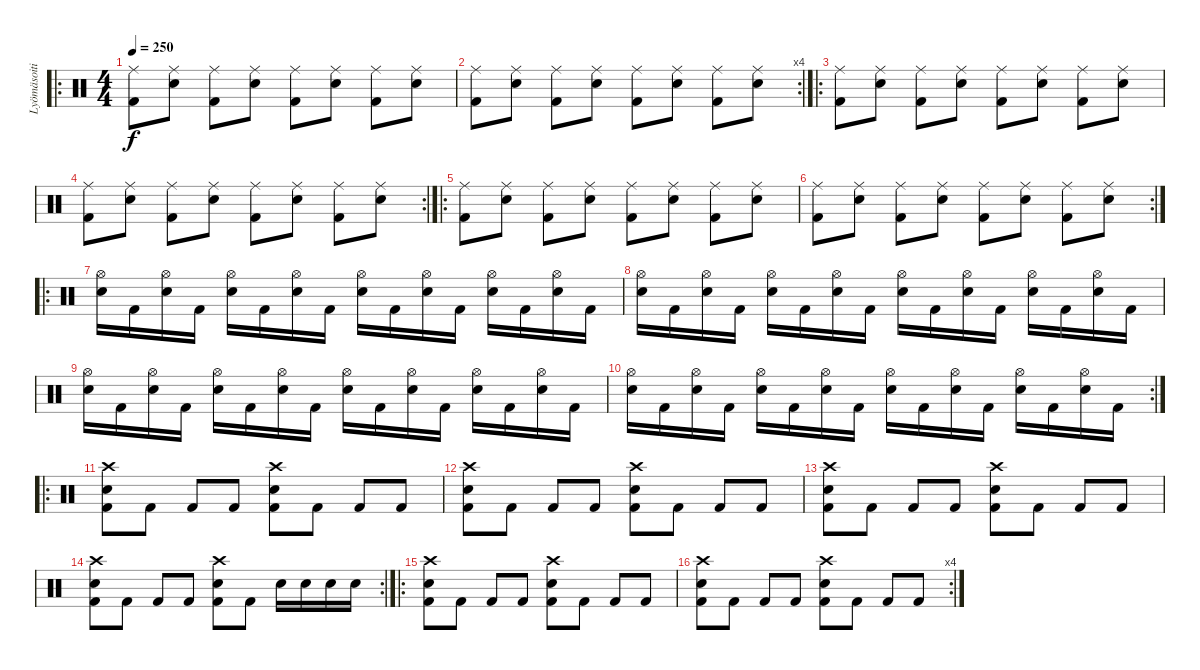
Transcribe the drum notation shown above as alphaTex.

\track ("Lyömäsoitin" "Lyömäsoiti") {instrument percussion}
\staff {score}
\articulation defaults
\ro
\ts (4 4)
\tempo 250
\clef neutral
\ks c
("Ride (middle)" "Kick (hit) 2").8{dy f} ("Ride (middle)" "Electric Snare (hit)").8 ("Ride (middle)" "Kick (hit) 2").8 ("Ride (middle)" "Electric Snare (hit)").8 ("Ride (middle)" "Kick (hit) 2").8 ("Ride (middle)" "Electric Snare (hit)").8 ("Ride (middle)" "Kick (hit) 2").8 ("Ride (middle)" "Electric Snare (hit)").8 |
\rc 4
("Ride (middle)" "Kick (hit) 2").8 ("Ride (middle)" "Electric Snare (hit)").8 ("Ride (middle)" "Kick (hit) 2").8 ("Ride (middle)" "Electric Snare (hit)").8 ("Ride (middle)" "Kick (hit) 2").8 ("Ride (middle)" "Electric Snare (hit)").8 ("Ride (middle)" "Kick (hit) 2").8 ("Ride (middle)" "Electric Snare (hit)").8 |
\ro
("Ride (middle)" "Kick (hit) 2").8 ("Ride (middle)" "Electric Snare (hit)").8 ("Ride (middle)" "Kick (hit) 2").8 ("Ride (middle)" "Electric Snare (hit)").8 ("Ride (middle)" "Kick (hit) 2").8 ("Ride (middle)" "Electric Snare (hit)").8 ("Ride (middle)" "Kick (hit) 2").8 ("Ride (middle)" "Electric Snare (hit)").8 |
\rc 2
("Ride (middle)" "Kick (hit) 2").8 ("Ride (middle)" "Electric Snare (hit)").8 ("Ride (middle)" "Kick (hit) 2").8 ("Ride (middle)" "Electric Snare (hit)").8 ("Ride (middle)" "Kick (hit) 2").8 ("Ride (middle)" "Electric Snare (hit)").8 ("Ride (middle)" "Kick (hit) 2").8 ("Ride (middle)" "Electric Snare (hit)").8 |
\ro
("Ride (middle)" "Kick (hit) 2").8 ("Ride (middle)" "Electric Snare (hit)").8 ("Ride (middle)" "Kick (hit) 2").8 ("Ride (middle)" "Electric Snare (hit)").8 ("Ride (middle)" "Kick (hit) 2").8 ("Ride (middle)" "Electric Snare (hit)").8 ("Ride (middle)" "Kick (hit) 2").8 ("Ride (middle)" "Electric Snare (hit)").8 |
\rc 2
("Ride (middle)" "Kick (hit) 2").8 ("Ride (middle)" "Electric Snare (hit)").8 ("Ride (middle)" "Kick (hit) 2").8 ("Ride (middle)" "Electric Snare (hit)").8 ("Ride (middle)" "Kick (hit) 2").8 ("Ride (middle)" "Electric Snare (hit)").8 ("Ride (middle)" "Kick (hit) 2").8 ("Ride (middle)" "Electric Snare (hit)").8 |
\ro
("Hi-Hat (open)" "Electric Snare (hit)").16 "Kick (hit) 2".16 ("Hi-Hat (open)" "Electric Snare (hit)").16 "Kick (hit) 2".16 ("Hi-Hat (open)" "Electric Snare (hit)").16 "Kick (hit) 2".16 ("Hi-Hat (open)" "Electric Snare (hit)").16 "Kick (hit) 2".16 ("Hi-Hat (open)" "Electric Snare (hit)").16 "Kick (hit) 2".16 ("Hi-Hat (open)" "Electric Snare (hit)").16 "Kick (hit) 2".16 ("Hi-Hat (open)" "Electric Snare (hit)").16 "Kick (hit) 2".16 ("Hi-Hat (open)" "Electric Snare (hit)").16 "Kick (hit) 2".16 |
("Hi-Hat (open)" "Electric Snare (hit)").16 "Kick (hit) 2".16 ("Hi-Hat (open)" "Electric Snare (hit)").16 "Kick (hit) 2".16 ("Hi-Hat (open)" "Electric Snare (hit)").16 "Kick (hit) 2".16 ("Hi-Hat (open)" "Electric Snare (hit)").16 "Kick (hit) 2".16 ("Hi-Hat (open)" "Electric Snare (hit)").16 "Kick (hit) 2".16 ("Hi-Hat (open)" "Electric Snare (hit)").16 "Kick (hit) 2".16 ("Hi-Hat (open)" "Electric Snare (hit)").16 "Kick (hit) 2".16 ("Hi-Hat (open)" "Electric Snare (hit)").16 "Kick (hit) 2".16 |
("Hi-Hat (open)" "Electric Snare (hit)").16 "Kick (hit) 2".16 ("Hi-Hat (open)" "Electric Snare (hit)").16 "Kick (hit) 2".16 ("Hi-Hat (open)" "Electric Snare (hit)").16 "Kick (hit) 2".16 ("Hi-Hat (open)" "Electric Snare (hit)").16 "Kick (hit) 2".16 ("Hi-Hat (open)" "Electric Snare (hit)").16 "Kick (hit) 2".16 ("Hi-Hat (open)" "Electric Snare (hit)").16 "Kick (hit) 2".16 ("Hi-Hat (open)" "Electric Snare (hit)").16 "Kick (hit) 2".16 ("Hi-Hat (open)" "Electric Snare (hit)").16 "Kick (hit) 2".16 |
\rc 2
("Hi-Hat (open)" "Electric Snare (hit)").16 "Kick (hit) 2".16 ("Hi-Hat (open)" "Electric Snare (hit)").16 "Kick (hit) 2".16 ("Hi-Hat (open)" "Electric Snare (hit)").16 "Kick (hit) 2".16 ("Hi-Hat (open)" "Electric Snare (hit)").16 "Kick (hit) 2".16 ("Hi-Hat (open)" "Electric Snare (hit)").16 "Kick (hit) 2".16 ("Hi-Hat (open)" "Electric Snare (hit)").16 "Kick (hit) 2".16 ("Hi-Hat (open)" "Electric Snare (hit)").16 "Kick (hit) 2".16 ("Hi-Hat (open)" "Electric Snare (hit)").16 "Kick (hit) 2".16 |
\ro
("Crash high (hit)" "Electric Snare (hit)" "Kick (hit) 2").8 "Kick (hit) 2".8 "Kick (hit) 2".8 "Kick (hit) 2".8 ("Crash high (hit)" "Electric Snare (hit)" "Kick (hit) 2").8 "Kick (hit) 2".8 "Kick (hit) 2".8 "Kick (hit) 2".8 |
("Crash high (hit)" "Electric Snare (hit)" "Kick (hit) 2").8 "Kick (hit) 2".8 "Kick (hit) 2".8 "Kick (hit) 2".8 ("Crash high (hit)" "Electric Snare (hit)" "Kick (hit) 2").8 "Kick (hit) 2".8 "Kick (hit) 2".8 "Kick (hit) 2".8 |
("Crash high (hit)" "Electric Snare (hit)" "Kick (hit) 2").8 "Kick (hit) 2".8 "Kick (hit) 2".8 "Kick (hit) 2".8 ("Crash high (hit)" "Electric Snare (hit)" "Kick (hit) 2").8 "Kick (hit) 2".8 "Kick (hit) 2".8 "Kick (hit) 2".8 |
\rc 2
("Crash high (hit)" "Electric Snare (hit)" "Kick (hit) 2").8 "Kick (hit) 2".8 "Kick (hit) 2".8 "Kick (hit) 2".8 ("Crash high (hit)" "Electric Snare (hit)" "Kick (hit) 2").8 "Kick (hit) 2".8 "Electric Snare (hit)".16 "Electric Snare (hit)".16 "Electric Snare (hit)".16 "Electric Snare (hit)".16 |
\ro
("Crash high (hit)" "Electric Snare (hit)" "Kick (hit) 2").8 "Kick (hit) 2".8 "Kick (hit) 2".8 "Kick (hit) 2".8 ("Crash high (hit)" "Electric Snare (hit)" "Kick (hit) 2").8 "Kick (hit) 2".8 "Kick (hit) 2".8 "Kick (hit) 2".8 |
\rc 4
("Crash high (hit)" "Electric Snare (hit)" "Kick (hit) 2").8 "Kick (hit) 2".8 "Kick (hit) 2".8 "Kick (hit) 2".8 ("Crash high (hit)" "Electric Snare (hit)" "Kick (hit) 2").8 "Kick (hit) 2".8 "Kick (hit) 2".8 "Kick (hit) 2".8
